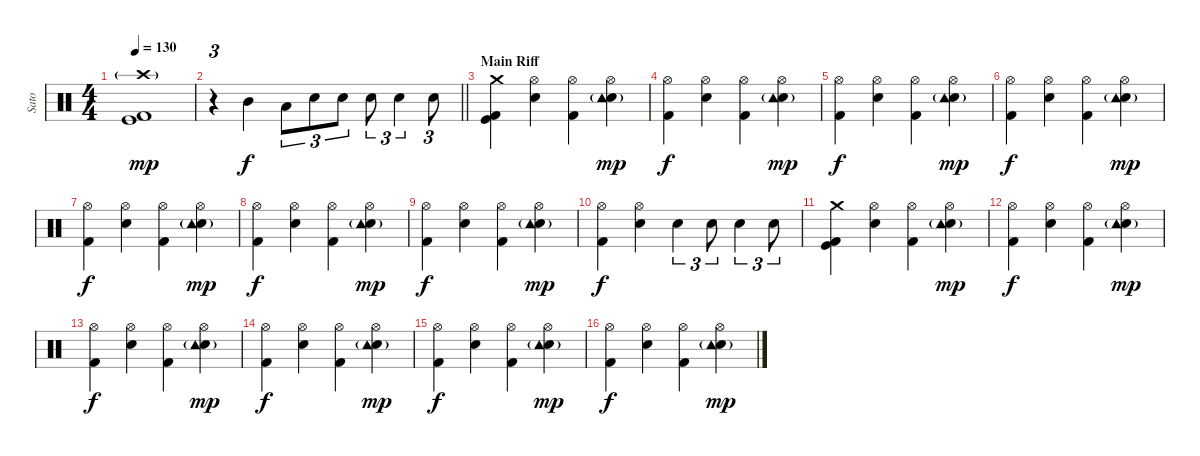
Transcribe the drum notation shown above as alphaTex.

\track ("Sato" "Sato") {instrument percussion}
\staff {score}
\articulation defaults
\ts (4 4)
\tempo 130
\clef neutral
\ks c
("Crash high (hit)"{g} "Kick (hit)" "Kick (hit) 2").1{dy mp} |
\barLineRight lightlight
r.4{tu (3 2)} "Mid Tom (hit)".4{dy f} "Low Tom (hit)".8{tu (3 2)} "Electric Snare (hit)".8{tu (3 2)} "Electric Snare (hit)".8{tu (3 2)} "Electric Snare (hit)".8{tu (3 2)} "Electric Snare (hit)".4{tu (3 2)} "Electric Snare (hit)".8{tu (3 2)} |
\section ("" "Main Riff")
("Crash medium (hit)" "Kick (hit) 2" "Kick (hit)").4 ("Hi-Hat (open)" "Electric Snare (hit)").4 ("Hi-Hat (open)" "Kick (hit) 2").4 ("Hi-Hat (open)" "Electric Snare (hit)" "Tambourine (hit)"{g}).4{dy mp} |
("Hi-Hat (open)" "Kick (hit) 2").4{dy f} ("Hi-Hat (open)" "Electric Snare (hit)").4 ("Hi-Hat (open)" "Kick (hit) 2").4 ("Hi-Hat (open)" "Electric Snare (hit)" "Tambourine (hit)"{g}).4{dy mp} |
("Hi-Hat (open)" "Kick (hit) 2").4{dy f} ("Hi-Hat (open)" "Electric Snare (hit)").4 ("Hi-Hat (open)" "Kick (hit) 2").4 ("Hi-Hat (open)" "Electric Snare (hit)" "Tambourine (hit)"{g}).4{dy mp} |
("Hi-Hat (open)" "Kick (hit) 2").4{dy f} ("Hi-Hat (open)" "Electric Snare (hit)").4 ("Hi-Hat (open)" "Kick (hit) 2").4 ("Hi-Hat (open)" "Electric Snare (hit)" "Tambourine (hit)"{g}).4{dy mp} |
("Hi-Hat (open)" "Kick (hit) 2").4{dy f} ("Hi-Hat (open)" "Electric Snare (hit)").4 ("Hi-Hat (open)" "Kick (hit) 2").4 ("Hi-Hat (open)" "Electric Snare (hit)" "Tambourine (hit)"{g}).4{dy mp} |
("Hi-Hat (open)" "Kick (hit) 2").4{dy f} ("Hi-Hat (open)" "Electric Snare (hit)").4 ("Hi-Hat (open)" "Kick (hit) 2").4 ("Hi-Hat (open)" "Electric Snare (hit)" "Tambourine (hit)"{g}).4{dy mp} |
("Hi-Hat (open)" "Kick (hit) 2").4{dy f} ("Hi-Hat (open)" "Electric Snare (hit)").4 ("Hi-Hat (open)" "Kick (hit) 2").4 ("Hi-Hat (open)" "Electric Snare (hit)" "Tambourine (hit)"{g}).4{dy mp} |
("Hi-Hat (open)" "Kick (hit) 2").4{dy f} ("Hi-Hat (open)" "Electric Snare (hit)").4 "Electric Snare (hit)".4{tu (3 2)} "Electric Snare (hit)".8{tu (3 2)} "Electric Snare (hit)".4{tu (3 2)} "Electric Snare (hit)".8{tu (3 2)} |
("Crash medium (hit)" "Kick (hit) 2" "Kick (hit)").4 ("Hi-Hat (open)" "Electric Snare (hit)").4 ("Hi-Hat (open)" "Kick (hit) 2").4 ("Hi-Hat (open)" "Electric Snare (hit)" "Tambourine (hit)"{g}).4{dy mp} |
("Hi-Hat (open)" "Kick (hit) 2").4{dy f} ("Hi-Hat (open)" "Electric Snare (hit)").4 ("Hi-Hat (open)" "Kick (hit) 2").4 ("Hi-Hat (open)" "Electric Snare (hit)" "Tambourine (hit)"{g}).4{dy mp} |
("Hi-Hat (open)" "Kick (hit) 2").4{dy f} ("Hi-Hat (open)" "Electric Snare (hit)").4 ("Hi-Hat (open)" "Kick (hit) 2").4 ("Hi-Hat (open)" "Electric Snare (hit)" "Tambourine (hit)"{g}).4{dy mp} |
("Hi-Hat (open)" "Kick (hit) 2").4{dy f} ("Hi-Hat (open)" "Electric Snare (hit)").4 ("Hi-Hat (open)" "Kick (hit) 2").4 ("Hi-Hat (open)" "Electric Snare (hit)" "Tambourine (hit)"{g}).4{dy mp} |
("Hi-Hat (open)" "Kick (hit) 2").4{dy f} ("Hi-Hat (open)" "Electric Snare (hit)").4 ("Hi-Hat (open)" "Kick (hit) 2").4 ("Hi-Hat (open)" "Electric Snare (hit)" "Tambourine (hit)"{g}).4{dy mp} |
("Hi-Hat (open)" "Kick (hit) 2").4{dy f} ("Hi-Hat (open)" "Electric Snare (hit)").4 ("Hi-Hat (open)" "Kick (hit) 2").4 ("Hi-Hat (open)" "Electric Snare (hit)" "Tambourine (hit)"{g}).4{dy mp}
